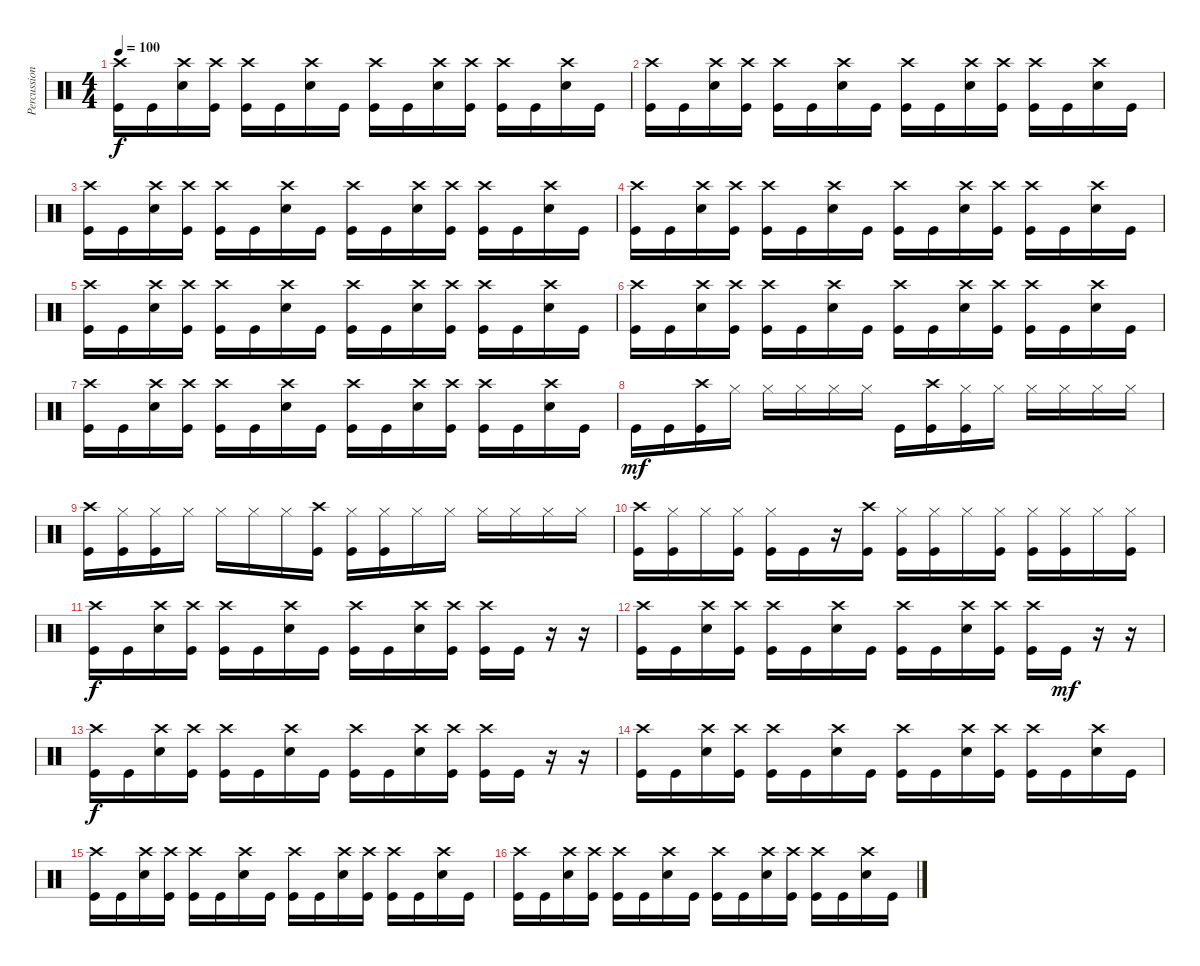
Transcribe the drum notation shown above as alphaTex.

\track ("Percussion" "Percussion") {instrument percussion}
\staff {score}
\articulation defaults
\ts (4 4)
\tempo 100
\clef neutral
\ks c
("Crash high (hit)" "Kick (hit)").16{dy f} "Kick (hit)".16 ("Crash high (hit)" "Snare (hit) 2").16 ("Crash high (hit)" "Kick (hit)").16 ("Crash high (hit)" "Kick (hit)").16 "Kick (hit)".16 ("Crash high (hit)" "Snare (hit) 2").16 "Kick (hit)".16 ("Crash high (hit)" "Kick (hit)").16 "Kick (hit)".16 ("Crash high (hit)" "Snare (hit) 2").16 ("Crash high (hit)" "Kick (hit)").16 ("Crash high (hit)" "Kick (hit)").16 "Kick (hit)".16 ("Crash high (hit)" "Snare (hit) 2").16 "Kick (hit)".16 |
("Crash high (hit)" "Kick (hit)").16 "Kick (hit)".16 ("Crash high (hit)" "Snare (hit) 2").16 ("Crash high (hit)" "Kick (hit)").16 ("Crash high (hit)" "Kick (hit)").16 "Kick (hit)".16 ("Crash high (hit)" "Snare (hit) 2").16 "Kick (hit)".16 ("Crash high (hit)" "Kick (hit)").16 "Kick (hit)".16 ("Crash high (hit)" "Snare (hit) 2").16 ("Crash high (hit)" "Kick (hit)").16 ("Crash high (hit)" "Kick (hit)").16 "Kick (hit)".16 ("Crash high (hit)" "Snare (hit) 2").16 "Kick (hit)".16 |
("Crash high (hit)" "Kick (hit)").16 "Kick (hit)".16 ("Crash high (hit)" "Snare (hit) 2").16 ("Crash high (hit)" "Kick (hit)").16 ("Crash high (hit)" "Kick (hit)").16 "Kick (hit)".16 ("Crash high (hit)" "Snare (hit) 2").16 "Kick (hit)".16 ("Crash high (hit)" "Kick (hit)").16 "Kick (hit)".16 ("Crash high (hit)" "Snare (hit) 2").16 ("Crash high (hit)" "Kick (hit)").16 ("Crash high (hit)" "Kick (hit)").16 "Kick (hit)".16 ("Crash high (hit)" "Snare (hit) 2").16 "Kick (hit)".16 |
("Crash high (hit)" "Kick (hit)").16 "Kick (hit)".16 ("Crash high (hit)" "Snare (hit) 2").16 ("Crash high (hit)" "Kick (hit)").16 ("Crash high (hit)" "Kick (hit)").16 "Kick (hit)".16 ("Crash high (hit)" "Snare (hit) 2").16 "Kick (hit)".16 ("Crash high (hit)" "Kick (hit)").16 "Kick (hit)".16 ("Crash high (hit)" "Snare (hit) 2").16 ("Crash high (hit)" "Kick (hit)").16 ("Crash high (hit)" "Kick (hit)").16 "Kick (hit)".16 ("Crash high (hit)" "Snare (hit) 2").16 "Kick (hit)".16 |
("Crash high (hit)" "Kick (hit)").16 "Kick (hit)".16 ("Crash high (hit)" "Snare (hit) 2").16 ("Crash high (hit)" "Kick (hit)").16 ("Crash high (hit)" "Kick (hit)").16 "Kick (hit)".16 ("Crash high (hit)" "Snare (hit) 2").16 "Kick (hit)".16 ("Crash high (hit)" "Kick (hit)").16 "Kick (hit)".16 ("Crash high (hit)" "Snare (hit) 2").16 ("Crash high (hit)" "Kick (hit)").16 ("Crash high (hit)" "Kick (hit)").16 "Kick (hit)".16 ("Crash high (hit)" "Snare (hit) 2").16 "Kick (hit)".16 |
("Crash high (hit)" "Kick (hit)").16 "Kick (hit)".16 ("Crash high (hit)" "Snare (hit) 2").16 ("Crash high (hit)" "Kick (hit)").16 ("Crash high (hit)" "Kick (hit)").16 "Kick (hit)".16 ("Crash high (hit)" "Snare (hit) 2").16 "Kick (hit)".16 ("Crash high (hit)" "Kick (hit)").16 "Kick (hit)".16 ("Crash high (hit)" "Snare (hit) 2").16 ("Crash high (hit)" "Kick (hit)").16 ("Crash high (hit)" "Kick (hit)").16 "Kick (hit)".16 ("Crash high (hit)" "Snare (hit) 2").16 "Kick (hit)".16 |
("Crash high (hit)" "Kick (hit)").16 "Kick (hit)".16 ("Crash high (hit)" "Snare (hit) 2").16 ("Crash high (hit)" "Kick (hit)").16 ("Crash high (hit)" "Kick (hit)").16 "Kick (hit)".16 ("Crash high (hit)" "Snare (hit) 2").16 "Kick (hit)".16 ("Crash high (hit)" "Kick (hit)").16 "Kick (hit)".16 ("Crash high (hit)" "Snare (hit) 2").16 ("Crash high (hit)" "Kick (hit)").16 ("Crash high (hit)" "Kick (hit)").16 "Kick (hit)".16 ("Crash high (hit)" "Snare (hit) 2").16 "Kick (hit)".16 |
"Kick (hit)".16{dy mf} "Kick (hit)".16 ("Crash high (hit)" "Kick (hit)").16 "Hi-Hat (closed)".16 "Hi-Hat (closed)".16 "Hi-Hat (closed)".16 "Hi-Hat (closed)".16 "Hi-Hat (closed)".16 "Kick (hit)".16 ("Crash high (hit)" "Kick (hit)").16 ("Hi-Hat (closed)" "Kick (hit)").16 "Hi-Hat (closed)".16 "Hi-Hat (closed)".16 "Hi-Hat (closed)".16 "Hi-Hat (closed)".16 "Hi-Hat (closed)".16 |
("Crash high (hit)" "Kick (hit)").16 ("Hi-Hat (closed)" "Kick (hit)").16 ("Hi-Hat (closed)" "Kick (hit)").16 "Hi-Hat (closed)".16 "Hi-Hat (closed)".16 "Hi-Hat (closed)".16 "Hi-Hat (closed)".16 ("Crash high (hit)" "Kick (hit)").16 ("Hi-Hat (closed)" "Kick (hit)").16 ("Hi-Hat (closed)" "Kick (hit)").16 "Hi-Hat (closed)".16 "Hi-Hat (closed)".16 "Hi-Hat (closed)".16 "Hi-Hat (closed)".16 "Hi-Hat (closed)".16 "Hi-Hat (closed)".16 |
("Crash high (hit)" "Kick (hit)").16 ("Hi-Hat (closed)" "Kick (hit)").16 "Hi-Hat (closed)".16 ("Hi-Hat (closed)" "Kick (hit)").16 ("Hi-Hat (closed)" "Kick (hit)").16 "Kick (hit)".16 r.16 ("Crash high (hit)" "Kick (hit)").16 ("Hi-Hat (closed)" "Kick (hit)").16 ("Hi-Hat (closed)" "Kick (hit)").16 "Hi-Hat (closed)".16 ("Hi-Hat (closed)" "Kick (hit)").16 ("Hi-Hat (closed)" "Kick (hit)").16 ("Hi-Hat (closed)" "Kick (hit)").16 "Hi-Hat (closed)".16 ("Hi-Hat (closed)" "Kick (hit)").16 |
("Crash high (hit)" "Kick (hit)").16{dy f} "Kick (hit)".16 ("Crash high (hit)" "Snare (hit) 2").16 ("Crash high (hit)" "Kick (hit)").16 ("Crash high (hit)" "Kick (hit)").16 "Kick (hit)".16 ("Crash high (hit)" "Snare (hit) 2").16 "Kick (hit)".16 ("Crash high (hit)" "Kick (hit)").16 "Kick (hit)".16 ("Crash high (hit)" "Snare (hit) 2").16 ("Crash high (hit)" "Kick (hit)").16 ("Crash high (hit)" "Kick (hit)").16 "Kick (hit)".16 r.16 r.16 |
("Crash high (hit)" "Kick (hit)").16 "Kick (hit)".16 ("Crash high (hit)" "Snare (hit) 2").16 ("Crash high (hit)" "Kick (hit)").16 ("Crash high (hit)" "Kick (hit)").16 "Kick (hit)".16 ("Crash high (hit)" "Snare (hit) 2").16 "Kick (hit)".16 ("Crash high (hit)" "Kick (hit)").16 "Kick (hit)".16 ("Crash high (hit)" "Snare (hit) 2").16 ("Crash high (hit)" "Kick (hit)").16 ("Crash high (hit)" "Kick (hit)").16 "Kick (hit)".16{dy mf} r.16 r.16 |
("Crash high (hit)" "Kick (hit)").16{dy f} "Kick (hit)".16 ("Crash high (hit)" "Snare (hit) 2").16 ("Crash high (hit)" "Kick (hit)").16 ("Crash high (hit)" "Kick (hit)").16 "Kick (hit)".16 ("Crash high (hit)" "Snare (hit) 2").16 "Kick (hit)".16 ("Crash high (hit)" "Kick (hit)").16 "Kick (hit)".16 ("Crash high (hit)" "Snare (hit) 2").16 ("Crash high (hit)" "Kick (hit)").16 ("Crash high (hit)" "Kick (hit)").16 "Kick (hit)".16 r.16 r.16 |
("Crash high (hit)" "Kick (hit)").16 "Kick (hit)".16 ("Crash high (hit)" "Snare (hit) 2").16 ("Crash high (hit)" "Kick (hit)").16 ("Crash high (hit)" "Kick (hit)").16 "Kick (hit)".16 ("Crash high (hit)" "Snare (hit) 2").16 "Kick (hit)".16 ("Crash high (hit)" "Kick (hit)").16 "Kick (hit)".16 ("Crash high (hit)" "Snare (hit) 2").16 ("Crash high (hit)" "Kick (hit)").16 ("Crash high (hit)" "Kick (hit)").16 "Kick (hit)".16 ("Crash high (hit)" "Snare (hit) 2").16 "Kick (hit)".16 |
("Crash high (hit)" "Kick (hit)").16 "Kick (hit)".16 ("Crash high (hit)" "Snare (hit) 2").16 ("Crash high (hit)" "Kick (hit)").16 ("Crash high (hit)" "Kick (hit)").16 "Kick (hit)".16 ("Crash high (hit)" "Snare (hit) 2").16 "Kick (hit)".16 ("Crash high (hit)" "Kick (hit)").16 "Kick (hit)".16 ("Crash high (hit)" "Snare (hit) 2").16 ("Crash high (hit)" "Kick (hit)").16 ("Crash high (hit)" "Kick (hit)").16 "Kick (hit)".16 ("Crash high (hit)" "Snare (hit) 2").16 "Kick (hit)".16 |
("Crash high (hit)" "Kick (hit)").16 "Kick (hit)".16 ("Crash high (hit)" "Snare (hit) 2").16 ("Crash high (hit)" "Kick (hit)").16 ("Crash high (hit)" "Kick (hit)").16 "Kick (hit)".16 ("Crash high (hit)" "Snare (hit) 2").16 "Kick (hit)".16 ("Crash high (hit)" "Kick (hit)").16 "Kick (hit)".16 ("Crash high (hit)" "Snare (hit) 2").16 ("Crash high (hit)" "Kick (hit)").16 ("Crash high (hit)" "Kick (hit)").16 "Kick (hit)".16 ("Crash high (hit)" "Snare (hit) 2").16 "Kick (hit)".16
